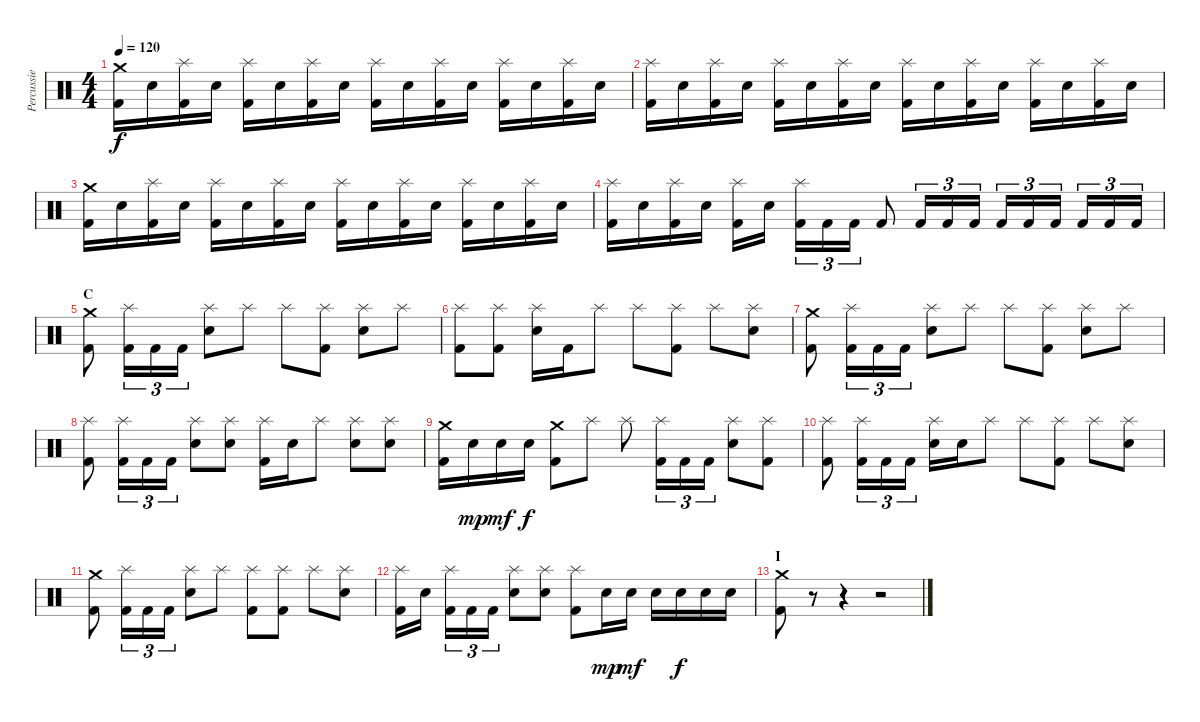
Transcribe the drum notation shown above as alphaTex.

\track ("Percussie" "Percussie") {instrument percussion}
\staff {score}
\articulation defaults
\ts (4 4)
\tempo 120
\clef neutral
\ks c
("Crash medium (hit)" "Kick (hit) 2").16{dy f} "Electric Snare (hit)".16 ("Splash (hit)" "Kick (hit) 2").16 "Electric Snare (hit)".16 ("Splash (hit)" "Kick (hit) 2").16 "Electric Snare (hit)".16 ("Splash (hit)" "Kick (hit) 2").16 "Electric Snare (hit)".16 ("Splash (hit)" "Kick (hit) 2").16 "Electric Snare (hit)".16 ("Splash (hit)" "Kick (hit) 2").16 "Electric Snare (hit)".16 ("Splash (hit)" "Kick (hit) 2").16 "Electric Snare (hit)".16 ("Splash (hit)" "Kick (hit) 2").16 "Electric Snare (hit)".16 |
("Splash (hit)" "Kick (hit) 2").16 "Electric Snare (hit)".16 ("Splash (hit)" "Kick (hit) 2").16 "Electric Snare (hit)".16 ("Splash (hit)" "Kick (hit) 2").16 "Electric Snare (hit)".16 ("Splash (hit)" "Kick (hit) 2").16 "Electric Snare (hit)".16 ("Splash (hit)" "Kick (hit) 2").16 "Electric Snare (hit)".16 ("Splash (hit)" "Kick (hit) 2").16 "Electric Snare (hit)".16 ("Splash (hit)" "Kick (hit) 2").16 "Electric Snare (hit)".16 ("Splash (hit)" "Kick (hit) 2").16 "Electric Snare (hit)".16 |
("Crash medium (hit)" "Kick (hit) 2").16 "Electric Snare (hit)".16 ("Splash (hit)" "Kick (hit) 2").16 "Electric Snare (hit)".16 ("Splash (hit)" "Kick (hit) 2").16 "Electric Snare (hit)".16 ("Splash (hit)" "Kick (hit) 2").16 "Electric Snare (hit)".16 ("Splash (hit)" "Kick (hit) 2").16 "Electric Snare (hit)".16 ("Splash (hit)" "Kick (hit) 2").16 "Electric Snare (hit)".16 ("Splash (hit)" "Kick (hit) 2").16 "Electric Snare (hit)".16 ("Splash (hit)" "Kick (hit) 2").16 "Electric Snare (hit)".16 |
("Splash (hit)" "Kick (hit) 2").16 "Electric Snare (hit)".16 ("Splash (hit)" "Kick (hit) 2").16 "Electric Snare (hit)".16 ("Splash (hit)" "Kick (hit) 2").16 "Electric Snare (hit)".16 ("Splash (hit)" "Kick (hit) 2").16{tu (3 2)} "Kick (hit) 2".16{tu (3 2)} "Kick (hit) 2".16{tu (3 2)} "Kick (hit) 2".8 "Kick (hit) 2".16{tu (3 2)} "Kick (hit) 2".16{tu (3 2)} "Kick (hit) 2".16{tu (3 2)} "Kick (hit) 2".16{tu (3 2)} "Kick (hit) 2".16{tu (3 2)} "Kick (hit) 2".16{tu (3 2)} "Kick (hit) 2".16{tu (3 2)} "Kick (hit) 2".16{tu (3 2)} "Kick (hit) 2".16{tu (3 2)} |
\section ("" "C")
("Crash medium (hit)" "Kick (hit) 2").8 ("Splash (hit)" "Kick (hit) 2").16{tu (3 2)} "Kick (hit) 2".16{tu (3 2)} "Kick (hit) 2".16{tu (3 2)} ("Splash (hit)" "Electric Snare (hit)").8 "Splash (hit)".8 "Splash (hit)".8 ("Splash (hit)" "Kick (hit) 2").8 ("Splash (hit)" "Electric Snare (hit)").8 "Splash (hit)".8 |
("Splash (hit)" "Kick (hit) 2").8 ("Splash (hit)" "Kick (hit) 2").8 ("Splash (hit)" "Electric Snare (hit)").16 "Kick (hit) 2".16 "Splash (hit)".8 "Splash (hit)".8 ("Splash (hit)" "Kick (hit) 2").8 "Splash (hit)".8 ("Splash (hit)" "Electric Snare (hit)").8 |
("Crash medium (hit)" "Kick (hit) 2").8 ("Splash (hit)" "Kick (hit) 2").16{tu (3 2)} "Kick (hit) 2".16{tu (3 2)} "Kick (hit) 2".16{tu (3 2)} ("Splash (hit)" "Electric Snare (hit)").8 "Splash (hit)".8 "Splash (hit)".8 ("Splash (hit)" "Kick (hit) 2").8 ("Splash (hit)" "Electric Snare (hit)").8 "Splash (hit)".8 |
("Splash (hit)" "Kick (hit) 2").8 ("Splash (hit)" "Kick (hit) 2").16{tu (3 2)} "Kick (hit) 2".16{tu (3 2)} "Kick (hit) 2".16{tu (3 2)} ("Splash (hit)" "Electric Snare (hit)").8 ("Splash (hit)" "Electric Snare (hit)").8 ("Splash (hit)" "Kick (hit) 2").16 "Electric Snare (hit)".16 "Splash (hit)".8 ("Splash (hit)" "Electric Snare (hit)").8 ("Splash (hit)" "Electric Snare (hit)").8 |
("Crash medium (hit)" "Kick (hit) 2").16 "Electric Snare (hit)".16{dy mp} "Electric Snare (hit)".16{dy mf} "Electric Snare (hit)".16{dy f} ("Crash medium (hit)" "Kick (hit) 2").8 "Splash (hit)".8 "Splash (hit)".8 ("Splash (hit)" "Kick (hit) 2").16{tu (3 2)} "Kick (hit) 2".16{tu (3 2)} "Kick (hit) 2".16{tu (3 2)} ("Splash (hit)" "Electric Snare (hit)").8 ("Splash (hit)" "Kick (hit) 2").8 |
("Splash (hit)" "Kick (hit) 2").8 ("Splash (hit)" "Kick (hit) 2").16{tu (3 2)} "Kick (hit) 2".16{tu (3 2)} "Kick (hit) 2".16{tu (3 2)} ("Splash (hit)" "Electric Snare (hit)").16 "Electric Snare (hit)".16 "Splash (hit)".8 "Splash (hit)".8 ("Splash (hit)" "Kick (hit) 2").8 "Splash (hit)".8 ("Splash (hit)" "Electric Snare (hit)").8 |
("Crash medium (hit)" "Kick (hit) 2").8 ("Splash (hit)" "Kick (hit) 2").16{tu (3 2)} "Kick (hit) 2".16{tu (3 2)} "Kick (hit) 2".16{tu (3 2)} ("Splash (hit)" "Electric Snare (hit)").8 "Splash (hit)".8 ("Splash (hit)" "Kick (hit) 2").8 ("Splash (hit)" "Kick (hit) 2").8 "Splash (hit)".8 ("Splash (hit)" "Electric Snare (hit)").8 |
("Splash (hit)" "Kick (hit) 2").16 "Electric Snare (hit)".16 ("Splash (hit)" "Kick (hit) 2").16{tu (3 2)} "Kick (hit) 2".16{tu (3 2)} "Kick (hit) 2".16{tu (3 2)} ("Splash (hit)" "Electric Snare (hit)").8 ("Splash (hit)" "Electric Snare (hit)").8 ("Splash (hit)" "Kick (hit) 2").8 "Electric Snare (hit)".16{dy mp} "Electric Snare (hit)".16{dy mf} "Electric Snare (hit)".16 "Electric Snare (hit)".16{dy f} "Electric Snare (hit)".16 "Electric Snare (hit)".16 |
\section ("" "I")
("Crash medium (hit)" "Kick (hit) 2").8 r.8 r.4 r.2
